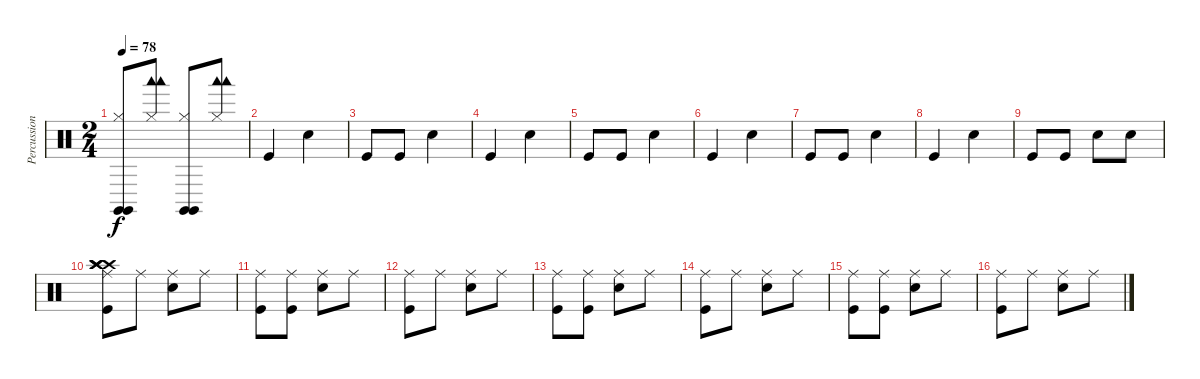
\track ("Percussion" "Percussion") {instrument percussion}
\staff {score}
\articulation defaults
\ts (2 4)
\tempo 78
\clef neutral
\ks c
("Hi-Hat (closed)" "Claves (hit)" "Claves (hit)").8{dy f} ("Hi-Hat (closed)" "Woodblock low (hit)" "Woodblock low (hit)").8 ("Hi-Hat (closed)" "Claves (hit)" "Claves (hit)").8 ("Hi-Hat (closed)" "Woodblock low (hit)" "Woodblock low (hit)").8 |
"Kick (hit)".4 "Metronome (bell)".4 |
"Kick (hit)".8 "Kick (hit)".8 "Metronome (bell)".4 |
"Kick (hit)".4 "Metronome (bell)".4 |
"Kick (hit)".8 "Kick (hit)".8 "Metronome (bell)".4 |
"Kick (hit)".4 "Metronome (bell)".4 |
"Kick (hit)".8 "Kick (hit)".8 "Metronome (bell)".4 |
"Kick (hit)".4 "Metronome (bell)".4 |
"Kick (hit)".8 "Kick (hit)".8 "Metronome (bell)".8 "Metronome (bell)".8 |
("Ride (middle)" "Kick (hit)" "Crash high (hit)" "Crash high (hit)" "Crash high (hit)" "Crash high (hit)").8 "Ride (middle)".8 ("Ride (middle)" "Metronome (bell)").8 "Ride (middle)".8 |
("Ride (middle)" "Kick (hit)").8 ("Ride (middle)" "Kick (hit)").8 ("Ride (middle)" "Metronome (bell)").8 "Ride (middle)".8 |
("Ride (middle)" "Kick (hit)").8 "Ride (middle)".8 ("Ride (middle)" "Metronome (bell)").8 "Ride (middle)".8 |
("Ride (middle)" "Kick (hit)").8 ("Ride (middle)" "Kick (hit)").8 ("Ride (middle)" "Metronome (bell)").8 "Ride (middle)".8 |
("Ride (middle)" "Kick (hit)").8 "Ride (middle)".8 ("Ride (middle)" "Metronome (bell)").8 "Ride (middle)".8 |
("Ride (middle)" "Kick (hit)").8 ("Ride (middle)" "Kick (hit)").8 ("Ride (middle)" "Metronome (bell)").8 "Ride (middle)".8 |
("Ride (middle)" "Kick (hit)").8 "Ride (middle)".8 ("Ride (middle)" "Metronome (bell)").8 "Ride (middle)".8
